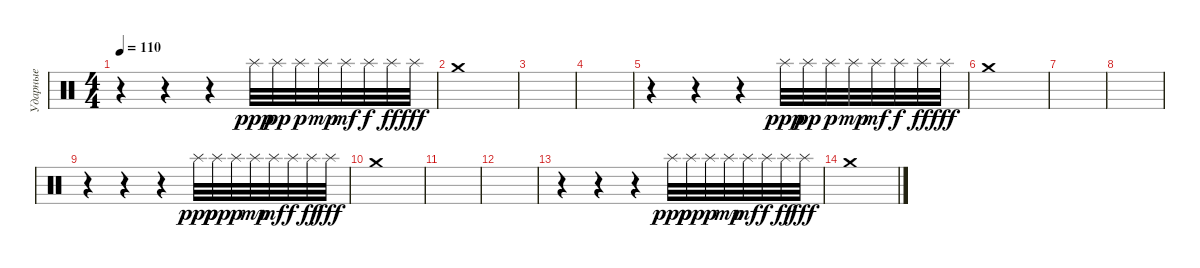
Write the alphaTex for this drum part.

\track ("Ударные" "Ударные") {instrument percussion}
\staff {score}
\articulation defaults
\ts (4 4)
\tempo 110
\clef neutral
\ks c
r.4{dy fff} r.4 r.4 "Splash (hit)".32{dy ppp} "Splash (hit)".32{dy pp} "Splash (hit)".32{dy p} "Splash (hit)".32{dy mp} "Splash (hit)".32{dy mf} "Splash (hit)".32{dy f} "Splash (hit)".32{dy ff} "Splash (hit)".32{dy fff} |
"Crash medium (hit)".1 |
|
|
r.4 r.4 r.4 "Splash (hit)".32{dy ppp} "Splash (hit)".32{dy pp} "Splash (hit)".32{dy p} "Splash (hit)".32{dy mp} "Splash (hit)".32{dy mf} "Splash (hit)".32{dy f} "Splash (hit)".32{dy ff} "Splash (hit)".32{dy fff} |
"Crash medium (hit)".1 |
|
|
r.4 r.4 r.4 "Splash (hit)".32{dy ppp} "Splash (hit)".32{dy pp} "Splash (hit)".32{dy p} "Splash (hit)".32{dy mp} "Splash (hit)".32{dy mf} "Splash (hit)".32{dy f} "Splash (hit)".32{dy ff} "Splash (hit)".32{dy fff} |
"Crash medium (hit)".1 |
|
|
r.4 r.4 r.4 "Splash (hit)".32{dy ppp} "Splash (hit)".32{dy pp} "Splash (hit)".32{dy p} "Splash (hit)".32{dy mp} "Splash (hit)".32{dy mf} "Splash (hit)".32{dy f} "Splash (hit)".32{dy ff} "Splash (hit)".32{dy fff} |
"Crash medium (hit)".1
